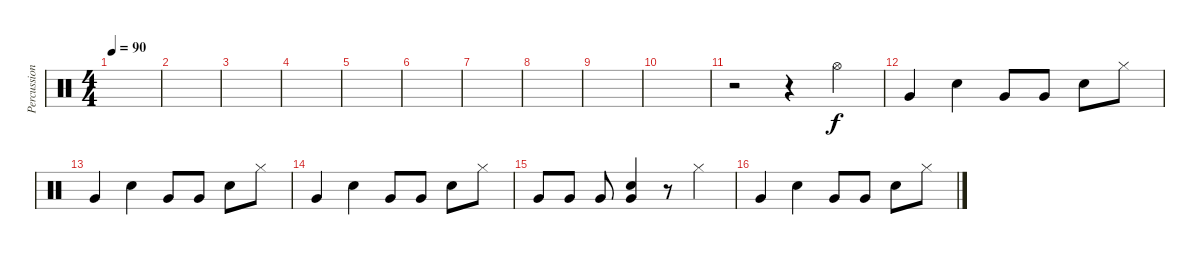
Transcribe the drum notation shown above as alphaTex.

\track ("Percussion" "Percussion") {instrument percussion}
\staff {score}
\articulation defaults
\ts (4 4)
\tempo 90
\clef neutral
\ks c
|
|
|
|
|
|
|
|
|
|
r.2 r.4 "Hi-Hat (open)".4 |
"Very Low Tom (hit)".4 "Electric Snare (hit)".4 "Very Low Tom (hit)".8 "Very Low Tom (hit)".8 "Electric Snare (hit)".8 "Hi-Hat (closed)".8 |
"Very Low Tom (hit)".4 "Electric Snare (hit)".4 "Very Low Tom (hit)".8 "Very Low Tom (hit)".8 "Electric Snare (hit)".8 "Hi-Hat (closed)".8 |
"Very Low Tom (hit)".4 "Electric Snare (hit)".4 "Very Low Tom (hit)".8 "Very Low Tom (hit)".8 "Electric Snare (hit)".8 "Hi-Hat (closed)".8 |
"Very Low Tom (hit)".8 "Very Low Tom (hit)".8 "Very Low Tom (hit)".8 ("Electric Snare (hit)" "Very Low Tom (hit)").4 r.8 "Hi-Hat (closed)".4 |
"Very Low Tom (hit)".4 "Electric Snare (hit)".4 "Very Low Tom (hit)".8 "Very Low Tom (hit)".8 "Electric Snare (hit)".8 "Hi-Hat (closed)".8
